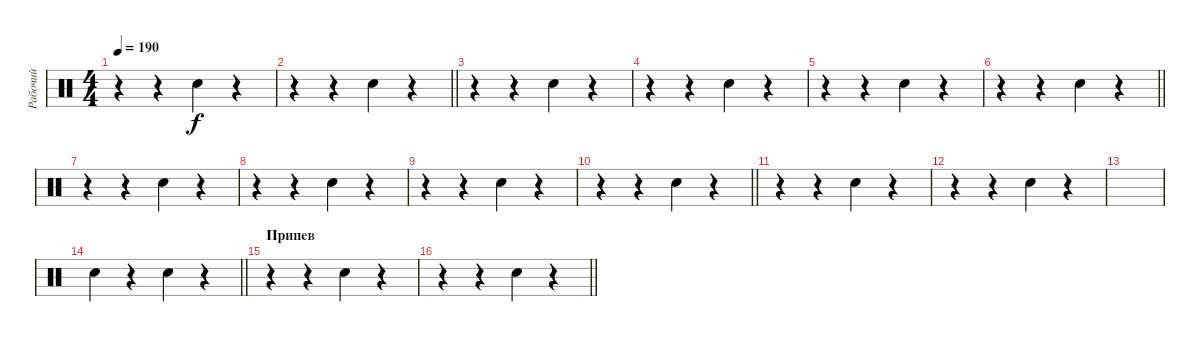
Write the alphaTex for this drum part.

\track ("Рабочий" "Рабочий") {instrument percussion}
\staff {score}
\articulation defaults
\ts (4 4)
\tempo 190
\clef neutral
\ks c
r.4{dy f} r.4 "Snare (hit) 2".4 r.4 |
\barLineRight lightlight
r.4 r.4 "Snare (hit) 2".4 r.4 |
r.4 r.4 "Snare (hit) 2".4 r.4 |
r.4 r.4 "Snare (hit) 2".4 r.4 |
r.4 r.4 "Snare (hit) 2".4 r.4 |
\barLineRight lightlight
r.4 r.4 "Snare (hit) 2".4 r.4 |
r.4 r.4 "Snare (hit) 2".4 r.4 |
r.4 r.4 "Snare (hit) 2".4 r.4 |
r.4 r.4 "Snare (hit) 2".4 r.4 |
\barLineRight lightlight
r.4 r.4 "Snare (hit) 2".4 r.4 |
r.4 r.4 "Snare (hit) 2".4 r.4 |
r.4 r.4 "Snare (hit) 2".4 r.4 |
|
\barLineRight lightlight "Snare (hit) 2".4
r.4 "Snare (hit) 2".4 r.4 |
\section ("" "Припев")
r.4 r.4 "Snare (hit) 2".4 r.4 |
\barLineRight lightlight
r.4 r.4 "Snare (hit) 2".4 r.4
